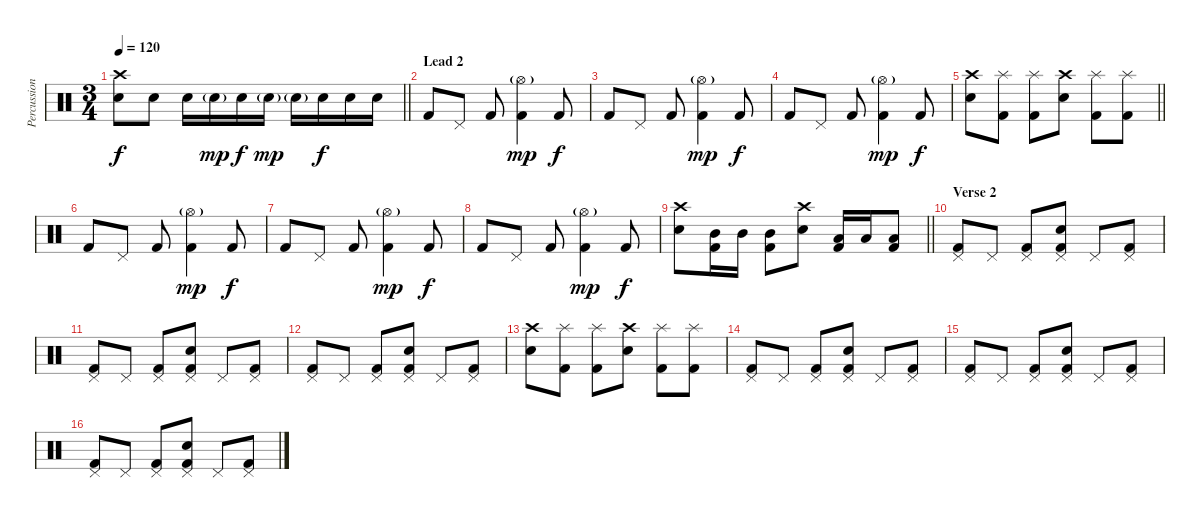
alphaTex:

\track ("Percussion" "Percussion") {instrument percussion}
\staff {score}
\articulation defaults
\ts (3 4)
\tempo 120
\clef neutral
\barLineRight lightlight
\ks c
("Crash high (hit)" "Electric Snare (hit)").8{dy f} "Electric Snare (hit)".8 "Electric Snare (hit)".16 "Electric Snare (hit)"{g}.16{dy mp} "Electric Snare (hit)".16{dy f} "Electric Snare (hit)"{g}.16{dy mp} "Electric Snare (hit)"{g}.16 "Electric Snare (hit)".16{dy f} "Electric Snare (hit)".16 "Electric Snare (hit)".16 |
\section ("" "Lead 2")
"Kick (hit) 2".8 "Pedal Hi-Hat (hit)".8 "Kick (hit) 2".8 ("Hi-Hat (open)"{g} "Kick (hit) 2").4{dy mp} "Kick (hit) 2".8{dy f} |
"Kick (hit) 2".8 "Pedal Hi-Hat (hit)".8 "Kick (hit) 2".8 ("Hi-Hat (open)"{g} "Kick (hit) 2").4{dy mp} "Kick (hit) 2".8{dy f} |
"Kick (hit) 2".8 "Pedal Hi-Hat (hit)".8 "Kick (hit) 2".8 ("Hi-Hat (open)"{g} "Kick (hit) 2").4{dy mp} "Kick (hit) 2".8{dy f} |
\barLineRight lightlight
("Crash high (hit)" "Electric Snare (hit)").8 ("Splash (hit)" "Kick (hit) 2").8 ("Splash (hit)" "Kick (hit) 2").8 ("Crash high (hit)" "Electric Snare (hit)").8 ("Splash (hit)" "Kick (hit) 2").8 ("Splash (hit)" "Kick (hit) 2").8 |
"Kick (hit) 2".8 "Pedal Hi-Hat (hit)".8 "Kick (hit) 2".8 ("Hi-Hat (open)"{g} "Kick (hit) 2").4{dy mp} "Kick (hit) 2".8{dy f} |
"Kick (hit) 2".8 "Pedal Hi-Hat (hit)".8 "Kick (hit) 2".8 ("Hi-Hat (open)"{g} "Kick (hit) 2").4{dy mp} "Kick (hit) 2".8{dy f} |
"Kick (hit) 2".8 "Pedal Hi-Hat (hit)".8 "Kick (hit) 2".8 ("Hi-Hat (open)"{g} "Kick (hit) 2").4{dy mp} "Kick (hit) 2".8{dy f} |
\barLineRight lightlight
("Crash high (hit)" "Electric Snare (hit)").8 ("Mid Tom (hit)" "Kick (hit) 2").16 "Mid Tom (hit)".16 ("Mid Tom (hit)" "Kick (hit) 2").8 ("Crash high (hit)" "Electric Snare (hit)").8 ("Low Tom (hit)" "Kick (hit) 2").16 "Low Tom (hit)".16 ("Low Tom (hit)" "Kick (hit) 2").8 |
\section ("" "Verse 2")
("Pedal Hi-Hat (hit)" "Kick (hit) 2").8 "Pedal Hi-Hat (hit)".8 ("Pedal Hi-Hat (hit)" "Kick (hit) 2").8 ("Pedal Hi-Hat (hit)" "Electric Snare (hit)" "Kick (hit) 2").8 "Pedal Hi-Hat (hit)".8 ("Pedal Hi-Hat (hit)" "Kick (hit) 2").8 |
("Pedal Hi-Hat (hit)" "Kick (hit) 2").8 "Pedal Hi-Hat (hit)".8 ("Pedal Hi-Hat (hit)" "Kick (hit) 2").8 ("Pedal Hi-Hat (hit)" "Electric Snare (hit)" "Kick (hit) 2").8 "Pedal Hi-Hat (hit)".8 ("Pedal Hi-Hat (hit)" "Kick (hit) 2").8 |
("Pedal Hi-Hat (hit)" "Kick (hit) 2").8 "Pedal Hi-Hat (hit)".8 ("Pedal Hi-Hat (hit)" "Kick (hit) 2").8 ("Pedal Hi-Hat (hit)" "Electric Snare (hit)" "Kick (hit) 2").8 "Pedal Hi-Hat (hit)".8 ("Pedal Hi-Hat (hit)" "Kick (hit) 2").8 |
("Crash high (hit)" "Electric Snare (hit)").8 ("Splash (hit)" "Kick (hit) 2").8 ("Splash (hit)" "Kick (hit) 2").8 ("Crash high (hit)" "Electric Snare (hit)").8 ("Splash (hit)" "Kick (hit) 2").8 ("Splash (hit)" "Kick (hit) 2").8 |
("Pedal Hi-Hat (hit)" "Kick (hit) 2").8 "Pedal Hi-Hat (hit)".8 ("Pedal Hi-Hat (hit)" "Kick (hit) 2").8 ("Pedal Hi-Hat (hit)" "Electric Snare (hit)" "Kick (hit) 2").8 "Pedal Hi-Hat (hit)".8 ("Pedal Hi-Hat (hit)" "Kick (hit) 2").8 |
("Pedal Hi-Hat (hit)" "Kick (hit) 2").8 "Pedal Hi-Hat (hit)".8 ("Pedal Hi-Hat (hit)" "Kick (hit) 2").8 ("Pedal Hi-Hat (hit)" "Electric Snare (hit)" "Kick (hit) 2").8 "Pedal Hi-Hat (hit)".8 ("Pedal Hi-Hat (hit)" "Kick (hit) 2").8 |
("Pedal Hi-Hat (hit)" "Kick (hit) 2").8 "Pedal Hi-Hat (hit)".8 ("Pedal Hi-Hat (hit)" "Kick (hit) 2").8 ("Pedal Hi-Hat (hit)" "Electric Snare (hit)" "Kick (hit) 2").8 "Pedal Hi-Hat (hit)".8 ("Pedal Hi-Hat (hit)" "Kick (hit) 2").8
